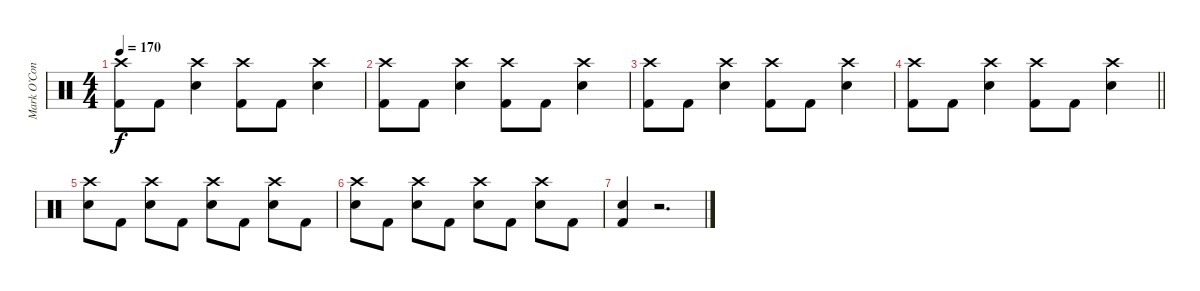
\track ("Mark O’Connell - Drums" "Mark O’Con") {instrument percussion}
\staff {score}
\articulation defaults
\ts (4 4)
\tempo 170
\clef neutral
\ks c
("Crash high (hit)" "Kick (hit) 2").8{dy f} "Kick (hit) 2".8 ("Crash high (hit)" "Snare (hit) 2").4 ("Crash high (hit)" "Kick (hit) 2").8 "Kick (hit) 2".8 ("Crash high (hit)" "Snare (hit) 2").4 |
("Crash high (hit)" "Kick (hit) 2").8 "Kick (hit) 2".8 ("Crash high (hit)" "Snare (hit) 2").4 ("Crash high (hit)" "Kick (hit) 2").8 "Kick (hit) 2".8 ("Crash high (hit)" "Snare (hit) 2").4 |
("Crash high (hit)" "Kick (hit) 2").8 "Kick (hit) 2".8 ("Crash high (hit)" "Snare (hit) 2").4 ("Crash high (hit)" "Kick (hit) 2").8 "Kick (hit) 2".8 ("Crash high (hit)" "Snare (hit) 2").4 |
\barLineRight lightlight
("Crash high (hit)" "Kick (hit) 2").8 "Kick (hit) 2".8 ("Crash high (hit)" "Snare (hit) 2").4 ("Crash high (hit)" "Kick (hit) 2").8 "Kick (hit) 2".8 ("Crash high (hit)" "Snare (hit) 2").4 |
("Crash high (hit)" "Snare (hit) 2").8 "Kick (hit) 2".8 ("Crash high (hit)" "Snare (hit) 2").8 "Kick (hit) 2".8 ("Crash high (hit)" "Snare (hit) 2").8 "Kick (hit) 2".8 ("Crash high (hit)" "Snare (hit) 2").8 "Kick (hit) 2".8 |
("Crash high (hit)" "Snare (hit) 2").8 "Kick (hit) 2".8 ("Crash high (hit)" "Snare (hit) 2").8 "Kick (hit) 2".8 ("Crash high (hit)" "Snare (hit) 2").8 "Kick (hit) 2".8 ("Crash high (hit)" "Snare (hit) 2").8 "Kick (hit) 2".8 |
("Snare (hit) 2" "Kick (hit) 2").4 r.2{d}
